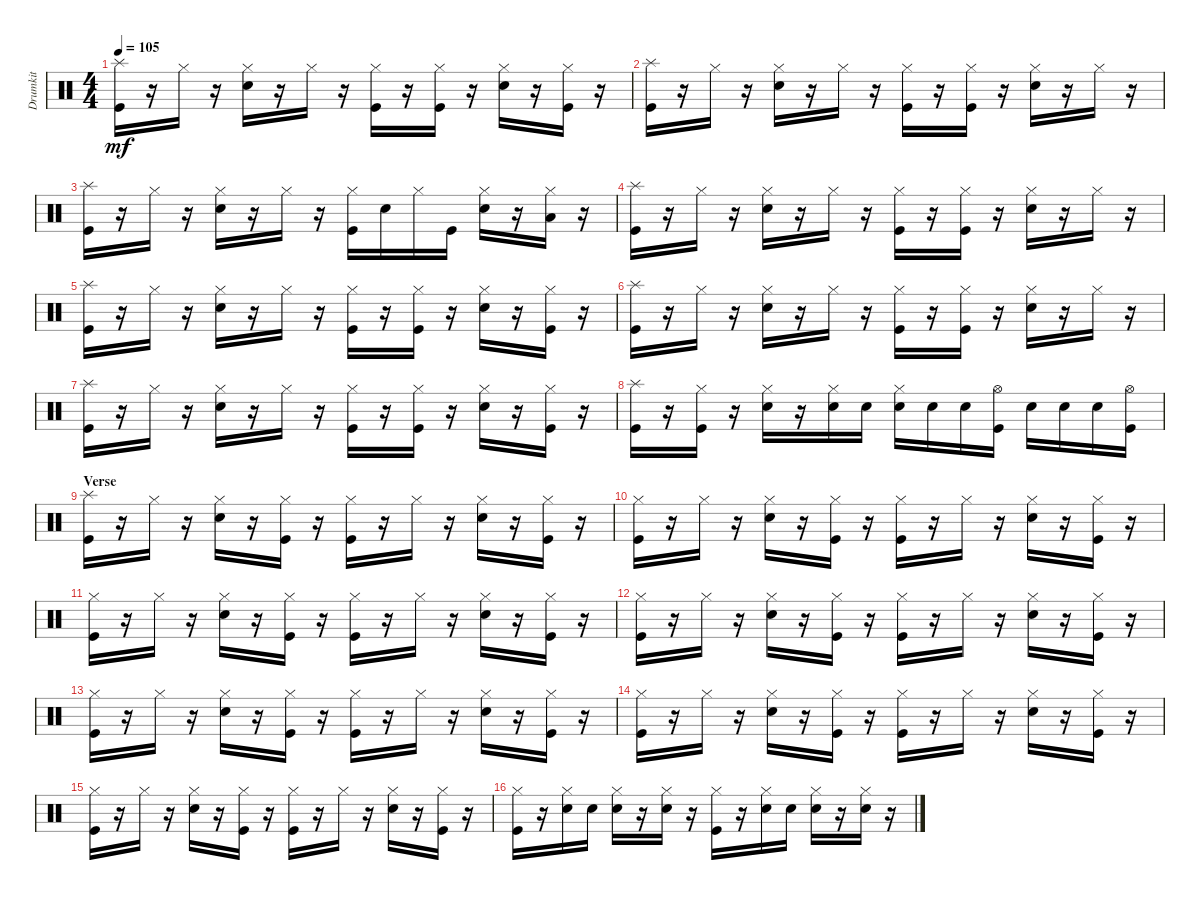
\track ("Drumkit" "Drumkit") {instrument percussion}
\staff {score}
\articulation defaults
\ts (4 4)
\tempo 105
\clef neutral
\ks c
("Kick (hit)" "Splash (hit)").16{dy mf} r.16 "Hi-Hat (closed)".16 r.16 ("Hi-Hat (closed)" "Snare (hit) 2").16 r.16 "Hi-Hat (closed)".16 r.16 ("Hi-Hat (closed)" "Kick (hit)").16 r.16 ("Hi-Hat (closed)" "Kick (hit)").16 r.16 ("Hi-Hat (closed)" "Snare (hit) 2").16 r.16 ("Hi-Hat (closed)" "Kick (hit)").16 r.16 |
("Kick (hit)" "Splash (hit)").16 r.16 "Hi-Hat (closed)".16 r.16 ("Hi-Hat (closed)" "Snare (hit) 2").16 r.16 "Hi-Hat (closed)".16 r.16 ("Hi-Hat (closed)" "Kick (hit)").16 r.16 ("Hi-Hat (closed)" "Kick (hit)").16 r.16 ("Hi-Hat (closed)" "Snare (hit) 2").16 r.16 "Hi-Hat (closed)".16 r.16 |
("Kick (hit)" "Splash (hit)").16 r.16 "Hi-Hat (closed)".16 r.16 ("Hi-Hat (closed)" "Snare (hit) 2").16 r.16 "Hi-Hat (closed)".16 r.16 ("Hi-Hat (closed)" "Kick (hit)").16 "Snare (hit) 2".16 "Hi-Hat (closed)".16 "Kick (hit)".16 ("Hi-Hat (closed)" "Snare (hit) 2").16 r.16 ("Low Tom (hit)" "Hi-Hat (closed)").16 r.16 |
("Kick (hit)" "Splash (hit)").16 r.16 "Hi-Hat (closed)".16 r.16 ("Hi-Hat (closed)" "Snare (hit) 2").16 r.16 "Hi-Hat (closed)".16 r.16 ("Hi-Hat (closed)" "Kick (hit)").16 r.16 ("Hi-Hat (closed)" "Kick (hit)").16 r.16 ("Hi-Hat (closed)" "Snare (hit) 2").16 r.16 "Hi-Hat (closed)".16 r.16 |
("Kick (hit)" "Splash (hit)").16 r.16 "Hi-Hat (closed)".16 r.16 ("Hi-Hat (closed)" "Snare (hit) 2").16 r.16 "Hi-Hat (closed)".16 r.16 ("Hi-Hat (closed)" "Kick (hit)").16 r.16 ("Hi-Hat (closed)" "Kick (hit)").16 r.16 ("Hi-Hat (closed)" "Snare (hit) 2").16 r.16 ("Hi-Hat (closed)" "Kick (hit)").16 r.16 |
("Kick (hit)" "Splash (hit)").16 r.16 "Hi-Hat (closed)".16 r.16 ("Hi-Hat (closed)" "Snare (hit) 2").16 r.16 "Hi-Hat (closed)".16 r.16 ("Hi-Hat (closed)" "Kick (hit)").16 r.16 ("Hi-Hat (closed)" "Kick (hit)").16 r.16 ("Hi-Hat (closed)" "Snare (hit) 2").16 r.16 "Hi-Hat (closed)".16 r.16 |
("Kick (hit)" "Splash (hit)").16 r.16 "Hi-Hat (closed)".16 r.16 ("Hi-Hat (closed)" "Snare (hit) 2").16 r.16 "Hi-Hat (closed)".16 r.16 ("Hi-Hat (closed)" "Kick (hit)").16 r.16 ("Hi-Hat (closed)" "Kick (hit)").16 r.16 ("Hi-Hat (closed)" "Snare (hit) 2").16 r.16 ("Hi-Hat (closed)" "Kick (hit)").16 r.16 |
("Kick (hit)" "Splash (hit)").16 r.16 ("Hi-Hat (closed)" "Kick (hit)").16 r.16 ("Hi-Hat (closed)" "Snare (hit) 2").16 r.16 ("Hi-Hat (closed)" "Snare (hit) 2").16 "Snare (hit) 2".16 ("Hi-Hat (closed)" "Snare (hit) 2").16 "Snare (hit) 2".16 "Snare (hit) 2".16 ("Kick (hit)" "Hi-Hat (open)").16 "Snare (hit) 2".16 "Snare (hit) 2".16 "Snare (hit) 2".16 ("Kick (hit)" "Hi-Hat (open)").16 |
\section ("" "Verse")
("Kick (hit)" "Splash (hit)").16 r.16 "Hi-Hat (closed)".16 r.16 ("Hi-Hat (closed)" "Snare (hit) 2").16 r.16 ("Hi-Hat (closed)" "Kick (hit)").16 r.16 ("Hi-Hat (closed)" "Kick (hit)").16 r.16 "Hi-Hat (closed)".16 r.16 ("Hi-Hat (closed)" "Snare (hit) 2").16 r.16 ("Hi-Hat (closed)" "Kick (hit)").16 r.16 |
("Kick (hit)" "Hi-Hat (closed)").16 r.16 "Hi-Hat (closed)".16 r.16 ("Hi-Hat (closed)" "Snare (hit) 2").16 r.16 ("Hi-Hat (closed)" "Kick (hit)").16 r.16 ("Hi-Hat (closed)" "Kick (hit)").16 r.16 "Hi-Hat (closed)".16 r.16 ("Hi-Hat (closed)" "Snare (hit) 2").16 r.16 ("Hi-Hat (closed)" "Kick (hit)").16 r.16 |
("Kick (hit)" "Hi-Hat (closed)").16 r.16 "Hi-Hat (closed)".16 r.16 ("Hi-Hat (closed)" "Snare (hit) 2").16 r.16 ("Hi-Hat (closed)" "Kick (hit)").16 r.16 ("Hi-Hat (closed)" "Kick (hit)").16 r.16 "Hi-Hat (closed)".16 r.16 ("Hi-Hat (closed)" "Snare (hit) 2").16 r.16 ("Hi-Hat (closed)" "Kick (hit)").16 r.16 |
("Kick (hit)" "Hi-Hat (closed)").16 r.16 "Hi-Hat (closed)".16 r.16 ("Hi-Hat (closed)" "Snare (hit) 2").16 r.16 ("Hi-Hat (closed)" "Kick (hit)").16 r.16 ("Hi-Hat (closed)" "Kick (hit)").16 r.16 "Hi-Hat (closed)".16 r.16 ("Hi-Hat (closed)" "Snare (hit) 2").16 r.16 ("Hi-Hat (closed)" "Kick (hit)").16 r.16 |
("Kick (hit)" "Hi-Hat (closed)").16 r.16 "Hi-Hat (closed)".16 r.16 ("Hi-Hat (closed)" "Snare (hit) 2").16 r.16 ("Hi-Hat (closed)" "Kick (hit)").16 r.16 ("Hi-Hat (closed)" "Kick (hit)").16 r.16 "Hi-Hat (closed)".16 r.16 ("Hi-Hat (closed)" "Snare (hit) 2").16 r.16 ("Hi-Hat (closed)" "Kick (hit)").16 r.16 |
("Kick (hit)" "Hi-Hat (closed)").16 r.16 "Hi-Hat (closed)".16 r.16 ("Hi-Hat (closed)" "Snare (hit) 2").16 r.16 ("Hi-Hat (closed)" "Kick (hit)").16 r.16 ("Hi-Hat (closed)" "Kick (hit)").16 r.16 "Hi-Hat (closed)".16 r.16 ("Hi-Hat (closed)" "Snare (hit) 2").16 r.16 ("Hi-Hat (closed)" "Kick (hit)").16 r.16 |
("Kick (hit)" "Hi-Hat (closed)").16 r.16 "Hi-Hat (closed)".16 r.16 ("Hi-Hat (closed)" "Snare (hit) 2").16 r.16 ("Hi-Hat (closed)" "Kick (hit)").16 r.16 ("Hi-Hat (closed)" "Kick (hit)").16 r.16 "Hi-Hat (closed)".16 r.16 ("Hi-Hat (closed)" "Snare (hit) 2").16 r.16 ("Hi-Hat (closed)" "Kick (hit)").16 r.16 |
("Hi-Hat (closed)" "Kick (hit)").16 r.16 ("Hi-Hat (closed)" "Snare (hit) 2").16 "Snare (hit) 2".16 ("Hi-Hat (closed)" "Snare (hit) 2").16 r.16 ("Hi-Hat (closed)" "Snare (hit) 2").16 r.16 ("Hi-Hat (closed)" "Kick (hit)").16 r.16 ("Hi-Hat (closed)" "Snare (hit) 2").16 "Snare (hit) 2".16 ("Hi-Hat (closed)" "Snare (hit) 2").16 r.16 ("Hi-Hat (closed)" "Snare (hit) 2").16 r.16
